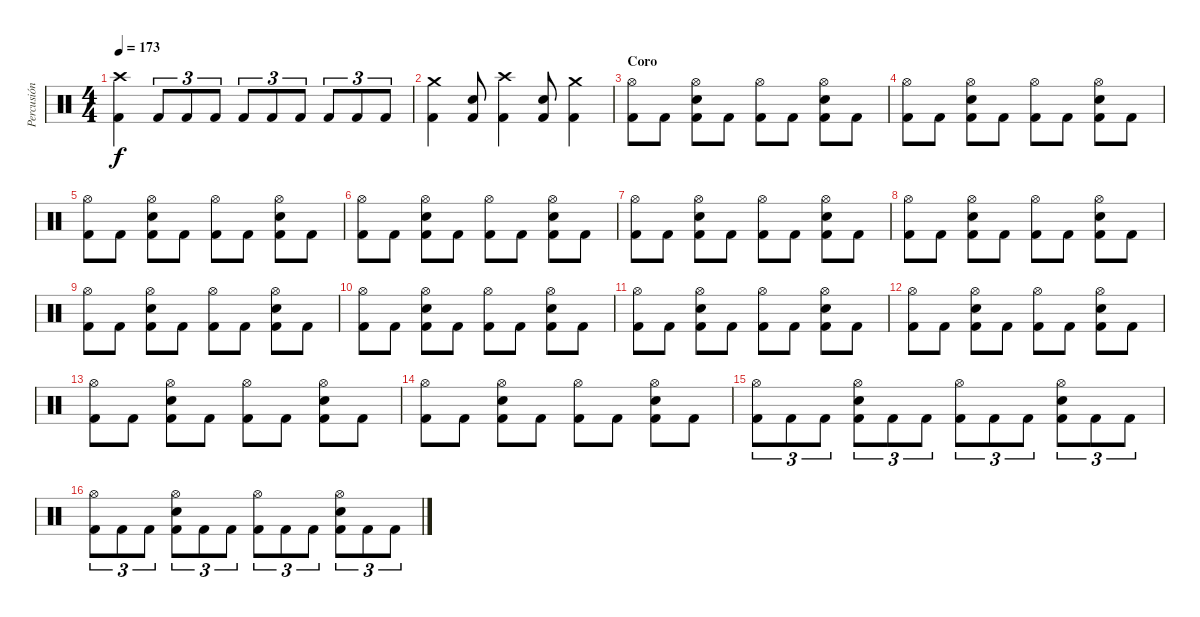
\track ("Percusión" "Percusión") {instrument percussion}
\staff {score}
\articulation defaults
\ts (4 4)
\tempo 173
\clef neutral
\ks c
("Crash high (hit)" "Kick (hit) 2").4{dy f} "Kick (hit) 2".8{tu (3 2)} "Kick (hit) 2".8{tu (3 2)} "Kick (hit) 2".8{tu (3 2)} "Kick (hit) 2".8{tu (3 2)} "Kick (hit) 2".8{tu (3 2)} "Kick (hit) 2".8{tu (3 2)} "Kick (hit) 2".8{tu (3 2)} "Kick (hit) 2".8{tu (3 2)} "Kick (hit) 2".8{tu (3 2)} |
("Crash medium (hit)" "Kick (hit) 2").4 ("Snare (hit) 2" "Kick (hit) 2").8 ("Crash high (hit)" "Kick (hit) 2").4 ("Snare (hit) 2" "Kick (hit) 2").8 ("Crash medium (hit)" "Kick (hit) 2").4 |
\section ("" "Coro")
("Hi-Hat (open)" "Kick (hit) 2").8 "Kick (hit) 2".8 ("Hi-Hat (open)" "Snare (hit) 2" "Kick (hit) 2").8 "Kick (hit) 2".8 ("Hi-Hat (open)" "Kick (hit) 2").8 "Kick (hit) 2".8 ("Hi-Hat (open)" "Snare (hit) 2" "Kick (hit) 2").8 "Kick (hit) 2".8 |
("Hi-Hat (open)" "Kick (hit) 2").8 "Kick (hit) 2".8 ("Hi-Hat (open)" "Snare (hit) 2" "Kick (hit) 2").8 "Kick (hit) 2".8 ("Hi-Hat (open)" "Kick (hit) 2").8 "Kick (hit) 2".8 ("Hi-Hat (open)" "Snare (hit) 2" "Kick (hit) 2").8 "Kick (hit) 2".8 |
("Hi-Hat (open)" "Kick (hit) 2").8 "Kick (hit) 2".8 ("Hi-Hat (open)" "Snare (hit) 2" "Kick (hit) 2").8 "Kick (hit) 2".8 ("Hi-Hat (open)" "Kick (hit) 2").8 "Kick (hit) 2".8 ("Hi-Hat (open)" "Snare (hit) 2" "Kick (hit) 2").8 "Kick (hit) 2".8 |
("Hi-Hat (open)" "Kick (hit) 2").8 "Kick (hit) 2".8 ("Hi-Hat (open)" "Snare (hit) 2" "Kick (hit) 2").8 "Kick (hit) 2".8 ("Hi-Hat (open)" "Kick (hit) 2").8 "Kick (hit) 2".8 ("Hi-Hat (open)" "Snare (hit) 2" "Kick (hit) 2").8 "Kick (hit) 2".8 |
("Hi-Hat (open)" "Kick (hit) 2").8 "Kick (hit) 2".8 ("Hi-Hat (open)" "Snare (hit) 2" "Kick (hit) 2").8 "Kick (hit) 2".8 ("Hi-Hat (open)" "Kick (hit) 2").8 "Kick (hit) 2".8 ("Hi-Hat (open)" "Snare (hit) 2" "Kick (hit) 2").8 "Kick (hit) 2".8 |
("Hi-Hat (open)" "Kick (hit) 2").8 "Kick (hit) 2".8 ("Hi-Hat (open)" "Snare (hit) 2" "Kick (hit) 2").8 "Kick (hit) 2".8 ("Hi-Hat (open)" "Kick (hit) 2").8 "Kick (hit) 2".8 ("Hi-Hat (open)" "Snare (hit) 2" "Kick (hit) 2").8 "Kick (hit) 2".8 |
("Hi-Hat (open)" "Kick (hit) 2").8 "Kick (hit) 2".8 ("Hi-Hat (open)" "Snare (hit) 2" "Kick (hit) 2").8 "Kick (hit) 2".8 ("Hi-Hat (open)" "Kick (hit) 2").8 "Kick (hit) 2".8 ("Hi-Hat (open)" "Snare (hit) 2" "Kick (hit) 2").8 "Kick (hit) 2".8 |
("Hi-Hat (open)" "Kick (hit) 2").8 "Kick (hit) 2".8 ("Hi-Hat (open)" "Snare (hit) 2" "Kick (hit) 2").8 "Kick (hit) 2".8 ("Hi-Hat (open)" "Kick (hit) 2").8 "Kick (hit) 2".8 ("Hi-Hat (open)" "Snare (hit) 2" "Kick (hit) 2").8 "Kick (hit) 2".8 |
("Hi-Hat (open)" "Kick (hit) 2").8 "Kick (hit) 2".8 ("Hi-Hat (open)" "Snare (hit) 2" "Kick (hit) 2").8 "Kick (hit) 2".8 ("Hi-Hat (open)" "Kick (hit) 2").8 "Kick (hit) 2".8 ("Hi-Hat (open)" "Snare (hit) 2" "Kick (hit) 2").8 "Kick (hit) 2".8 |
("Hi-Hat (open)" "Kick (hit) 2").8 "Kick (hit) 2".8 ("Hi-Hat (open)" "Snare (hit) 2" "Kick (hit) 2").8 "Kick (hit) 2".8 ("Hi-Hat (open)" "Kick (hit) 2").8 "Kick (hit) 2".8 ("Hi-Hat (open)" "Snare (hit) 2" "Kick (hit) 2").8 "Kick (hit) 2".8 |
("Hi-Hat (open)" "Kick (hit) 2").8 "Kick (hit) 2".8 ("Hi-Hat (open)" "Snare (hit) 2" "Kick (hit) 2").8 "Kick (hit) 2".8 ("Hi-Hat (open)" "Kick (hit) 2").8 "Kick (hit) 2".8 ("Hi-Hat (open)" "Snare (hit) 2" "Kick (hit) 2").8 "Kick (hit) 2".8 |
("Hi-Hat (open)" "Kick (hit) 2").8 "Kick (hit) 2".8 ("Hi-Hat (open)" "Snare (hit) 2" "Kick (hit) 2").8 "Kick (hit) 2".8 ("Hi-Hat (open)" "Kick (hit) 2").8 "Kick (hit) 2".8 ("Hi-Hat (open)" "Snare (hit) 2" "Kick (hit) 2").8 "Kick (hit) 2".8 |
("Hi-Hat (open)" "Kick (hit) 2").8{tu (3 2)} "Kick (hit) 2".8{tu (3 2)} "Kick (hit) 2".8{tu (3 2)} ("Hi-Hat (open)" "Snare (hit) 2" "Kick (hit) 2").8{tu (3 2)} "Kick (hit) 2".8{tu (3 2)} "Kick (hit) 2".8{tu (3 2)} ("Hi-Hat (open)" "Kick (hit) 2").8{tu (3 2)} "Kick (hit) 2".8{tu (3 2)} "Kick (hit) 2".8{tu (3 2)} ("Hi-Hat (open)" "Snare (hit) 2" "Kick (hit) 2").8{tu (3 2)} "Kick (hit) 2".8{tu (3 2)} "Kick (hit) 2".8{tu (3 2)} |
("Hi-Hat (open)" "Kick (hit) 2").8{tu (3 2)} "Kick (hit) 2".8{tu (3 2)} "Kick (hit) 2".8{tu (3 2)} ("Hi-Hat (open)" "Snare (hit) 2" "Kick (hit) 2").8{tu (3 2)} "Kick (hit) 2".8{tu (3 2)} "Kick (hit) 2".8{tu (3 2)} ("Hi-Hat (open)" "Kick (hit) 2").8{tu (3 2)} "Kick (hit) 2".8{tu (3 2)} "Kick (hit) 2".8{tu (3 2)} ("Hi-Hat (open)" "Snare (hit) 2" "Kick (hit) 2").8{tu (3 2)} "Kick (hit) 2".8{tu (3 2)} "Kick (hit) 2".8{tu (3 2)}
